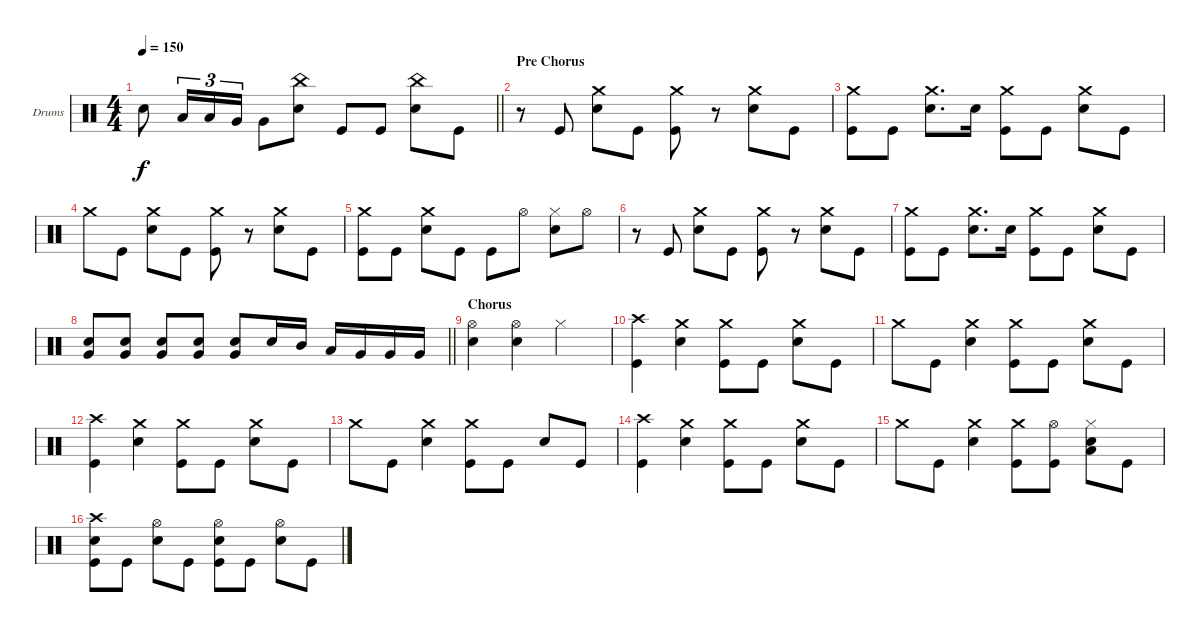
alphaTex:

\bracketExtendMode groupsimilarinstruments
\firstSystemTrackNameOrientation horizontal
\otherSystemsTrackNameOrientation horizontal
\track ("Drumkit" "Drums") {instrument percussion}
\staff {score}
\articulation defaults
\ts (4 4)
\tempo 150
\clef neutral
\barLineRight lightlight
\ks c "Snare (hit) 2".8{dy f} "Low Tom (hit)".16{tu (3 2)} "Low Tom (hit)".16{tu (3 2)} "Very Low Tom (hit)".16{tu (3 2)} "Very Low Tom (hit)".8
("China (hit)" "Snare (hit) 2").8 "Kick (hit)".8 "Kick (hit)".8 ("China (hit)" "Snare (hit) 2").8 "Kick (hit)".8 |
\section ("" "Pre Chorus")
r.8 "Kick (hit)".8 ("Crash medium (hit)" "Snare (hit) 2").8 "Kick (hit)".8 ("Crash medium (hit)" "Kick (hit)").8 r.8 ("Crash medium (hit)" "Snare (hit) 2").8 "Kick (hit)".8 |
("Crash medium (hit)" "Kick (hit)").8 "Kick (hit)".8 ("Crash medium (hit)" "Snare (hit) 2").8{d} "Snare (hit) 2".16 ("Crash medium (hit)" "Kick (hit)").8 "Kick (hit)".8 ("Crash medium (hit)" "Snare (hit) 2").8 "Kick (hit)".8 |
"Crash medium (hit)".8 "Kick (hit)".8 ("Crash medium (hit)" "Snare (hit) 2").8 "Kick (hit)".8 ("Crash medium (hit)" "Kick (hit)").8 r.8 ("Crash medium (hit)" "Snare (hit) 2").8 "Kick (hit)".8 |
("Crash medium (hit)" "Kick (hit)").8 "Kick (hit)".8 ("Crash medium (hit)" "Snare (hit) 2").8 "Kick (hit)".8 "Kick (hit)".8 "Hi-Hat (open)".8 ("Hi-Hat (closed)" "Snare (hit) 2").8 "Hi-Hat (open)".8 |
r.8 "Kick (hit)".8 ("Crash medium (hit)" "Snare (hit) 2").8 "Kick (hit)".8 ("Crash medium (hit)" "Kick (hit)").8 r.8 ("Crash medium (hit)" "Snare (hit) 2").8 "Kick (hit)".8 |
("Crash medium (hit)" "Kick (hit)").8 "Kick (hit)".8 ("Crash medium (hit)" "Snare (hit) 2").8{d} "Snare (hit) 2".16 ("Crash medium (hit)" "Kick (hit)").8 "Kick (hit)".8 ("Crash medium (hit)" "Snare (hit) 2").8 "Kick (hit)".8 |
\barLineRight lightlight
("Snare (hit) 2" "Very Low Tom (hit)").8 ("Snare (hit) 2" "Very Low Tom (hit)").8 ("Snare (hit) 2" "Very Low Tom (hit)").8 ("Snare (hit) 2" "Very Low Tom (hit)").8 ("Snare (hit) 2" "Very Low Tom (hit)").8 "Snare (hit) 2".16 "Mid Tom (hit)".16 "Low Tom (hit)".16 "Very Low Tom (hit)".16 "Very Low Tom (hit)".16 "Very Low Tom (hit)".16 |
\section ("" "Chorus")
("Hi-Hat (open)" "Snare (hit) 2").4 ("Hi-Hat (open)" "Snare (hit) 2").4 "Hi-Hat (closed)".2 |
("Crash high (hit)" "Kick (hit)").4 ("Crash medium (hit)" "Snare (hit) 2").4 ("Crash medium (hit)" "Kick (hit)").8 "Kick (hit)".8 ("Crash medium (hit)" "Snare (hit) 2").8 "Kick (hit)".8 |
"Crash medium (hit)".8 "Kick (hit)".8 ("Crash medium (hit)" "Snare (hit) 2").4 ("Crash medium (hit)" "Kick (hit)").8 "Kick (hit)".8 ("Crash medium (hit)" "Snare (hit) 2").8 "Kick (hit)".8 |
("Crash high (hit)" "Kick (hit)").4 ("Crash medium (hit)" "Snare (hit) 2").4 ("Crash medium (hit)" "Kick (hit)").8 "Kick (hit)".8 ("Crash medium (hit)" "Snare (hit) 2").8 "Kick (hit)".8 |
"Crash medium (hit)".8 "Kick (hit)".8 ("Crash medium (hit)" "Snare (hit) 2").4 ("Crash medium (hit)" "Kick (hit)").8 "Kick (hit)".8 "Snare (hit) 2".8 "Kick (hit)".8 |
("Crash high (hit)" "Kick (hit)").4 ("Crash medium (hit)" "Snare (hit) 2").4 ("Crash medium (hit)" "Kick (hit)").8 "Kick (hit)".8 ("Crash medium (hit)" "Snare (hit) 2").8 "Kick (hit)".8 |
"Crash medium (hit)".8 "Kick (hit)".8 ("Crash medium (hit)" "Snare (hit) 2").4 ("Crash medium (hit)" "Kick (hit)").8 ("Hi-Hat (open)" "Kick (hit)").8 ("Hi-Hat (closed)" "Snare (hit) 2" "Low Tom (hit)").8 "Kick (hit)".8 |
("Crash high (hit)" "Snare (hit) 2" "Kick (hit)").8 "Kick (hit)".8 ("Hi-Hat (open)" "Snare (hit) 2").8 "Kick (hit)".8 ("Hi-Hat (open)" "Snare (hit) 2" "Kick (hit)").8 "Kick (hit)".8 ("Hi-Hat (open)" "Snare (hit) 2").8 "Kick (hit)".8
